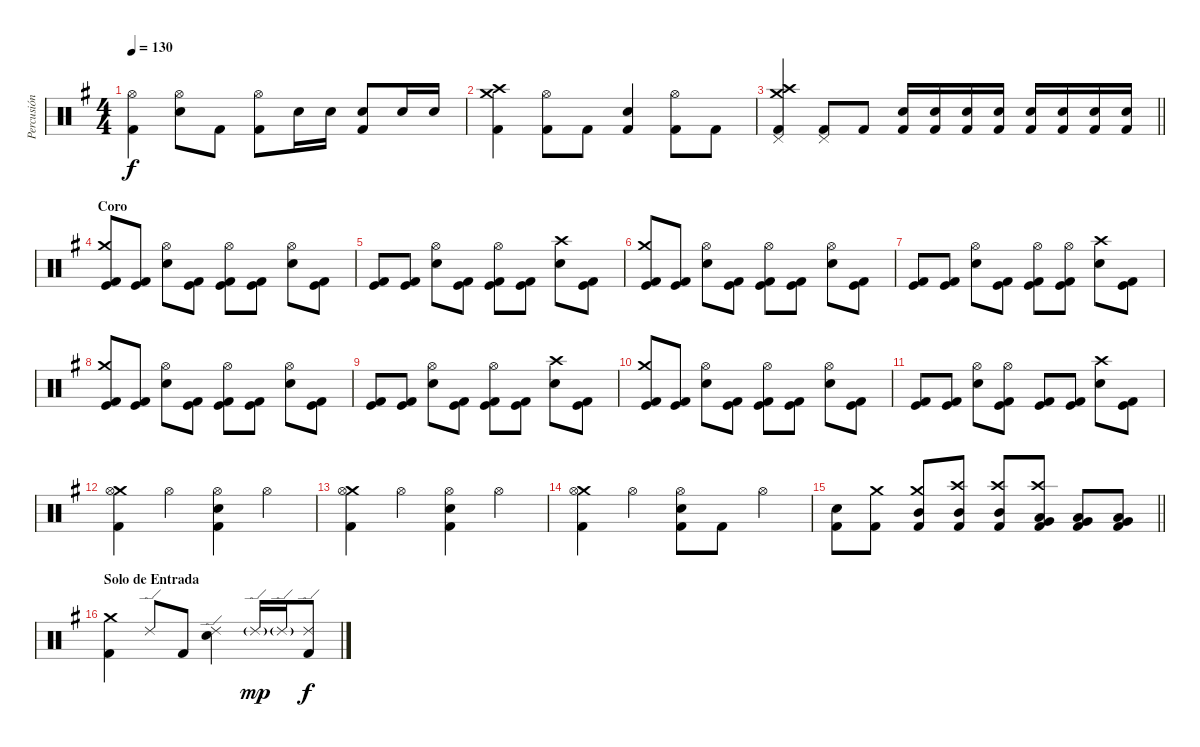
\track ("Percusión" "Percusión") {instrument percussion}
\staff {score}
\articulation defaults
\ts (4 4)
\tempo 130
\clef neutral
\ks g
("Hi-Hat (open)" "Kick (hit) 2").4{dy f} ("Hi-Hat (open)" "Electric Snare (hit)").8 "Kick (hit) 2".8 ("Hi-Hat (open)" "Kick (hit) 2").8 "Electric Snare (hit)".16 "Electric Snare (hit)".16 ("Electric Snare (hit)" "Kick (hit) 2").8 "Electric Snare (hit)".16 "Electric Snare (hit)".16 |
("Crash medium (hit)" "Crash high (hit)" "Kick (hit) 2").4 ("Hi-Hat (open)" "Kick (hit) 2").8 "Kick (hit) 2".8 ("Electric Snare (hit)" "Kick (hit) 2").4 ("Hi-Hat (open)" "Kick (hit) 2").8 "Kick (hit) 2".8 |
\barLineRight lightlight
("Crash medium (hit)" "Crash high (hit)" "Pedal Hi-Hat (hit)" "Kick (hit) 2").4 ("Pedal Hi-Hat (hit)" "Kick (hit) 2").8 "Kick (hit) 2".8 ("Electric Snare (hit)" "Kick (hit) 2").16 ("Electric Snare (hit)" "Kick (hit) 2").16 ("Electric Snare (hit)" "Kick (hit) 2").16 ("Electric Snare (hit)" "Kick (hit) 2").16 ("Electric Snare (hit)" "Kick (hit) 2").16 ("Electric Snare (hit)" "Kick (hit) 2").16 ("Electric Snare (hit)" "Kick (hit) 2").16 ("Electric Snare (hit)" "Kick (hit) 2").16 |
\section ("" "Coro")
("Crash medium (hit)" "Kick (hit)" "Kick (hit) 2").8 ("Kick (hit)" "Kick (hit) 2").8 ("Hi-Hat (open)" "Electric Snare (hit)").8 ("Kick (hit)" "Kick (hit) 2").8 ("Hi-Hat (open)" "Kick (hit)" "Kick (hit) 2").8 ("Kick (hit)" "Kick (hit) 2").8 ("Hi-Hat (open)" "Electric Snare (hit)").8 ("Kick (hit)" "Kick (hit) 2").8 |
("Kick (hit)" "Kick (hit) 2").8 ("Kick (hit)" "Kick (hit) 2").8 ("Hi-Hat (open)" "Electric Snare (hit)").8 ("Kick (hit)" "Kick (hit) 2").8 ("Hi-Hat (open)" "Kick (hit)" "Kick (hit) 2").8 ("Kick (hit)" "Kick (hit) 2").8 ("Crash high (hit)" "Electric Snare (hit)").8 ("Kick (hit)" "Kick (hit) 2").8 |
("Crash medium (hit)" "Kick (hit)" "Kick (hit) 2").8 ("Kick (hit)" "Kick (hit) 2").8 ("Hi-Hat (open)" "Electric Snare (hit)").8 ("Kick (hit)" "Kick (hit) 2").8 ("Hi-Hat (open)" "Kick (hit)" "Kick (hit) 2").8 ("Kick (hit)" "Kick (hit) 2").8 ("Hi-Hat (open)" "Electric Snare (hit)").8 ("Kick (hit)" "Kick (hit) 2").8 |
("Kick (hit)" "Kick (hit) 2").8 ("Kick (hit)" "Kick (hit) 2").8 ("Hi-Hat (open)" "Electric Snare (hit)").8 ("Kick (hit)" "Kick (hit) 2").8 ("Hi-Hat (open)" "Kick (hit)" "Kick (hit) 2").8 ("Hi-Hat (open)" "Kick (hit)" "Kick (hit) 2").8 ("Crash high (hit)" "Electric Snare (hit)").8 ("Kick (hit)" "Kick (hit) 2").8 |
("Crash medium (hit)" "Kick (hit)" "Kick (hit) 2").8 ("Kick (hit)" "Kick (hit) 2").8 ("Hi-Hat (open)" "Electric Snare (hit)").8 ("Kick (hit)" "Kick (hit) 2").8 ("Hi-Hat (open)" "Kick (hit)" "Kick (hit) 2").8 ("Kick (hit)" "Kick (hit) 2").8 ("Hi-Hat (open)" "Electric Snare (hit)").8 ("Kick (hit)" "Kick (hit) 2").8 |
("Kick (hit)" "Kick (hit) 2").8 ("Kick (hit)" "Kick (hit) 2").8 ("Hi-Hat (open)" "Electric Snare (hit)").8 ("Kick (hit)" "Kick (hit) 2").8 ("Hi-Hat (open)" "Kick (hit)" "Kick (hit) 2").8 ("Kick (hit)" "Kick (hit) 2").8 ("Crash high (hit)" "Electric Snare (hit)").8 ("Kick (hit)" "Kick (hit) 2").8 |
("Crash medium (hit)" "Kick (hit)" "Kick (hit) 2").8 ("Kick (hit)" "Kick (hit) 2").8 ("Hi-Hat (open)" "Electric Snare (hit)").8 ("Kick (hit)" "Kick (hit) 2").8 ("Hi-Hat (open)" "Kick (hit)" "Kick (hit) 2").8 ("Kick (hit)" "Kick (hit) 2").8 ("Hi-Hat (open)" "Electric Snare (hit)").8 ("Kick (hit)" "Kick (hit) 2").8 |
("Kick (hit)" "Kick (hit) 2").8 ("Kick (hit)" "Kick (hit) 2").8 ("Hi-Hat (open)" "Electric Snare (hit)").8 ("Hi-Hat (open)" "Kick (hit)" "Kick (hit) 2").8 ("Kick (hit)" "Kick (hit) 2").8 ("Kick (hit)" "Kick (hit) 2").8 ("Crash high (hit)" "Electric Snare (hit)").8 ("Kick (hit)" "Kick (hit) 2").8 |
("Crash medium (hit)" "Hi-Hat (open)" "Kick (hit) 2").4 "Hi-Hat (open)".4 ("Hi-Hat (open)" "Electric Snare (hit)" "Kick (hit) 2").4 "Hi-Hat (open)".4 |
("Crash medium (hit)" "Hi-Hat (open)" "Kick (hit) 2").4 "Hi-Hat (open)".4 ("Hi-Hat (open)" "Electric Snare (hit)" "Kick (hit) 2").4 "Hi-Hat (open)".4 |
("Crash medium (hit)" "Hi-Hat (open)" "Kick (hit) 2").4 "Hi-Hat (open)".4 ("Hi-Hat (open)" "Electric Snare (hit)" "Kick (hit) 2").8 "Kick (hit) 2".8 "Hi-Hat (open)".4 |
\barLineRight lightlight
("Electric Snare (hit)" "Kick (hit) 2").8 ("Crash medium (hit)" "Kick (hit) 2").8 ("Crash medium (hit)" "Mid Tom (hit)" "Kick (hit) 2").8 ("Crash high (hit)" "Mid Tom (hit)" "Kick (hit) 2").8 ("Crash high (hit)" "Mid Tom (hit)" "Kick (hit) 2").8 ("Crash high (hit)" "Low Tom (hit)" "Very Low Tom (hit)" "Kick (hit) 2").8 ("Low Tom (hit)" "Very Low Tom (hit)" "Kick (hit) 2").8 ("Low Tom (hit)" "Very Low Tom (hit)" "Kick (hit) 2").8 |
\section ("" "Solo de Entrada")
("Crash medium (hit)" "Kick (hit) 2").4 "Ride (edge) 2".8 "Kick (hit) 2".8 ("Ride (edge) 2" "Electric Snare (hit)").4 "Ride (edge) 2"{g}.16{dy mp} "Ride (edge) 2"{g}.16 ("Ride (edge) 2" "Kick (hit) 2").8{dy f}
